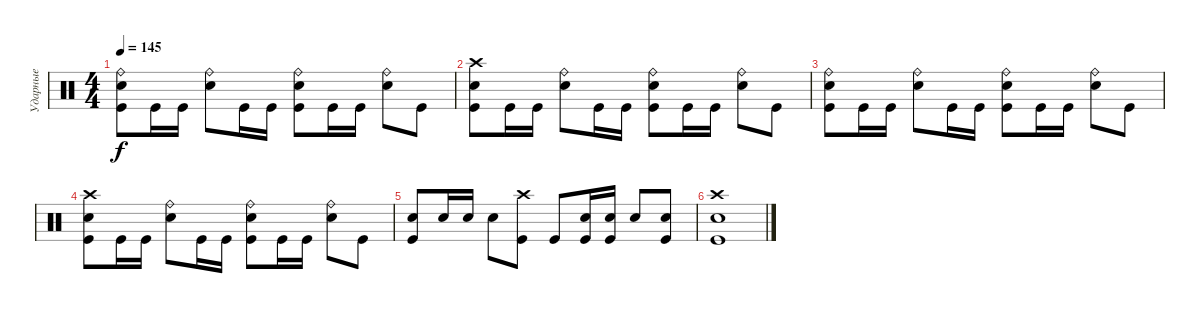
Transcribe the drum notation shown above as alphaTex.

\track ("Ударные" "Ударные") {instrument percussion}
\staff {score}
\articulation defaults
\ts (4 4)
\tempo 145
\clef neutral
\ks c
("Ride (bell)" "Electric Snare (hit)" "Kick (hit)").8{dy f} "Kick (hit)".16 "Kick (hit)".16 ("Ride (bell)" "Electric Snare (hit)").8 "Kick (hit)".16 "Kick (hit)".16 ("Ride (bell)" "Electric Snare (hit)" "Kick (hit)").8 "Kick (hit)".16 "Kick (hit)".16 ("Ride (bell)" "Electric Snare (hit)").8 "Kick (hit)".8 |
("Crash high (hit)" "Electric Snare (hit)" "Kick (hit)").8 "Kick (hit)".16 "Kick (hit)".16 ("Ride (bell)" "Electric Snare (hit)").8 "Kick (hit)".16 "Kick (hit)".16 ("Ride (bell)" "Electric Snare (hit)" "Kick (hit)").8 "Kick (hit)".16 "Kick (hit)".16 ("Ride (bell)" "Electric Snare (hit)").8 "Kick (hit)".8 |
("Ride (bell)" "Electric Snare (hit)" "Kick (hit)").8 "Kick (hit)".16 "Kick (hit)".16 ("Ride (bell)" "Electric Snare (hit)").8 "Kick (hit)".16 "Kick (hit)".16 ("Ride (bell)" "Electric Snare (hit)" "Kick (hit)").8 "Kick (hit)".16 "Kick (hit)".16 ("Ride (bell)" "Electric Snare (hit)").8 "Kick (hit)".8 |
("Crash high (hit)" "Electric Snare (hit)" "Kick (hit)").8 "Kick (hit)".16 "Kick (hit)".16 ("Ride (bell)" "Electric Snare (hit)").8 "Kick (hit)".16 "Kick (hit)".16 ("Ride (bell)" "Electric Snare (hit)" "Kick (hit)").8 "Kick (hit)".16 "Kick (hit)".16 ("Ride (bell)" "Electric Snare (hit)").8 "Kick (hit)".8 |
("Electric Snare (hit)" "Kick (hit)").8 "Electric Snare (hit)".16 "Electric Snare (hit)".16 "Electric Snare (hit)".8 ("Crash high (hit)" "Kick (hit)").8 "Kick (hit)".8 ("Electric Snare (hit)" "Kick (hit)").16 ("Electric Snare (hit)" "Kick (hit)").16 "Electric Snare (hit)".8 ("Electric Snare (hit)" "Kick (hit)").8 |
("Crash high (hit)" "Electric Snare (hit)" "Kick (hit)").1
